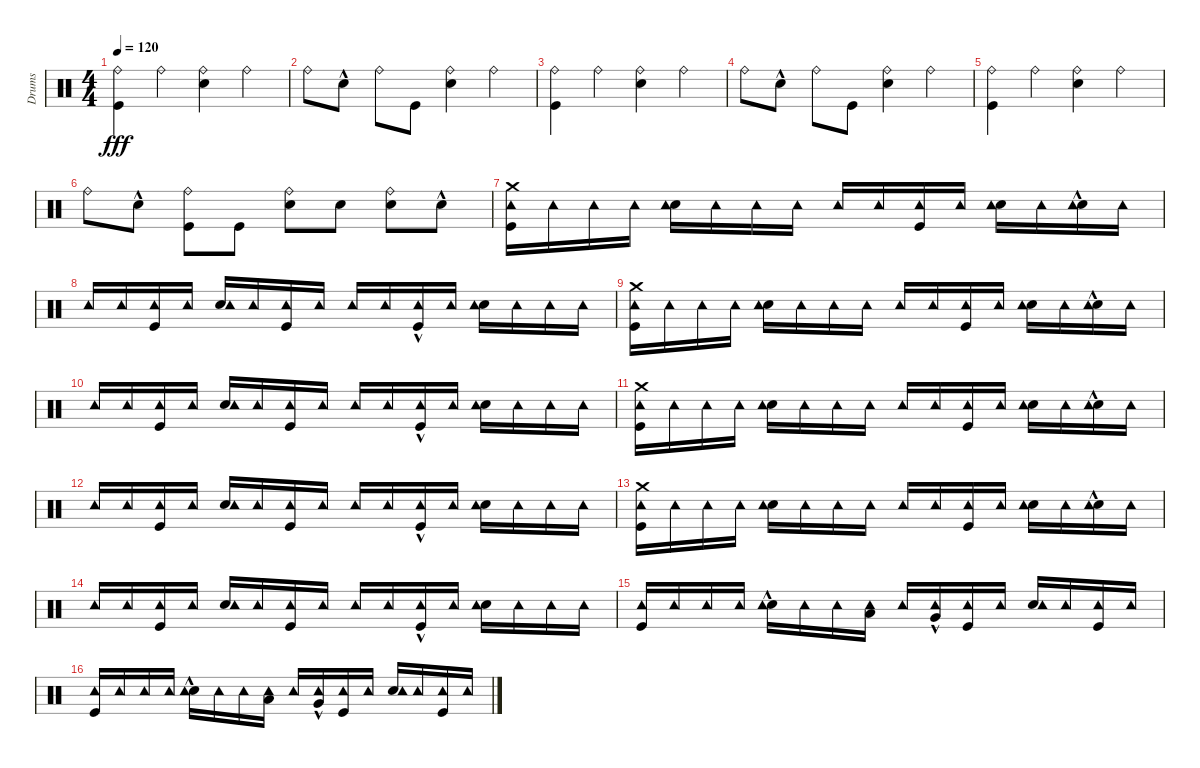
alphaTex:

\track ("Drums" "Drums") {instrument percussion}
\staff {score}
\articulation defaults
\ts (4 4)
\tempo 120
\clef neutral
\ks c
("Kick (hit)" "Ride (bell)").4{dy fff} "Ride (bell)".4 ("Snare (hit) 2" "Ride (bell)").4 "Ride (bell)".4 |
"Ride (bell)".8 "Snare (hit) 2"{hac}.8 "Ride (bell)".8 "Kick (hit)".8 ("Snare (hit) 2" "Ride (bell)").4 "Ride (bell)".4 |
("Kick (hit)" "Ride (bell)").4 "Ride (bell)".4 ("Snare (hit) 2" "Ride (bell)").4 "Ride (bell)".4 |
"Ride (bell)".8 "Snare (hit) 2"{hac}.8 "Ride (bell)".8 "Kick (hit)".8 ("Snare (hit) 2" "Ride (bell)").4 "Ride (bell)".4 |
("Kick (hit)" "Ride (bell)").4 "Ride (bell)".4 ("Snare (hit) 2" "Ride (bell)").4 "Ride (bell)".4 |
"Ride (bell)".8 "Snare (hit) 2"{hac}.8 ("Kick (hit)" "Ride (bell)").8 "Kick (hit)".8 ("Snare (hit) 2" "Ride (bell)").8 "Snare (hit) 2".8 ("Snare (hit) 2" "Ride (bell)").8 "Snare (hit) 2"{hac}.8 |
("Kick (hit)" "Tambourine (hit)" "Crash medium (hit)").16 "Tambourine (hit)".16 "Tambourine (hit)".16 "Tambourine (hit)".16 ("Snare (hit) 2" "Tambourine (hit)").16 "Tambourine (hit)".16 "Tambourine (hit)".16 "Tambourine (hit)".16 "Tambourine (hit)".16 "Tambourine (hit)".16 ("Kick (hit)" "Tambourine (hit)").16 "Tambourine (hit)".16 ("Snare (hit) 2" "Tambourine (hit)").16 "Tambourine (hit)".16 ("Snare (hit) 2"{hac} "Tambourine (hit)").16 "Tambourine (hit)".16 |
"Tambourine (hit)".16 "Tambourine (hit)".16 ("Kick (hit)" "Tambourine (hit)").16 "Tambourine (hit)".16 ("Snare (hit) 2" "Tambourine (hit)").16 "Tambourine (hit)".16 ("Kick (hit)" "Tambourine (hit)").16 "Tambourine (hit)".16 "Tambourine (hit)".16 "Tambourine (hit)".16 ("Kick (hit)"{hac} "Tambourine (hit)").16 "Tambourine (hit)".16 ("Snare (hit) 2" "Tambourine (hit)").16 "Tambourine (hit)".16 "Tambourine (hit)".16 "Tambourine (hit)".16 |
("Kick (hit)" "Tambourine (hit)" "Crash medium (hit)").16 "Tambourine (hit)".16 "Tambourine (hit)".16 "Tambourine (hit)".16 ("Snare (hit) 2" "Tambourine (hit)").16 "Tambourine (hit)".16 "Tambourine (hit)".16 "Tambourine (hit)".16 "Tambourine (hit)".16 "Tambourine (hit)".16 ("Kick (hit)" "Tambourine (hit)").16 "Tambourine (hit)".16 ("Snare (hit) 2" "Tambourine (hit)").16 "Tambourine (hit)".16 ("Snare (hit) 2"{hac} "Tambourine (hit)").16 "Tambourine (hit)".16 |
"Tambourine (hit)".16 "Tambourine (hit)".16 ("Kick (hit)" "Tambourine (hit)").16 "Tambourine (hit)".16 ("Snare (hit) 2" "Tambourine (hit)").16 "Tambourine (hit)".16 ("Kick (hit)" "Tambourine (hit)").16 "Tambourine (hit)".16 "Tambourine (hit)".16 "Tambourine (hit)".16 ("Kick (hit)"{hac} "Tambourine (hit)").16 "Tambourine (hit)".16 ("Snare (hit) 2" "Tambourine (hit)").16 "Tambourine (hit)".16 "Tambourine (hit)".16 "Tambourine (hit)".16 |
("Kick (hit)" "Tambourine (hit)" "Crash medium (hit)").16 "Tambourine (hit)".16 "Tambourine (hit)".16 "Tambourine (hit)".16 ("Snare (hit) 2" "Tambourine (hit)").16 "Tambourine (hit)".16 "Tambourine (hit)".16 "Tambourine (hit)".16 "Tambourine (hit)".16 "Tambourine (hit)".16 ("Kick (hit)" "Tambourine (hit)").16 "Tambourine (hit)".16 ("Snare (hit) 2" "Tambourine (hit)").16 "Tambourine (hit)".16 ("Snare (hit) 2"{hac} "Tambourine (hit)").16 "Tambourine (hit)".16 |
"Tambourine (hit)".16 "Tambourine (hit)".16 ("Kick (hit)" "Tambourine (hit)").16 "Tambourine (hit)".16 ("Snare (hit) 2" "Tambourine (hit)").16 "Tambourine (hit)".16 ("Kick (hit)" "Tambourine (hit)").16 "Tambourine (hit)".16 "Tambourine (hit)".16 "Tambourine (hit)".16 ("Kick (hit)"{hac} "Tambourine (hit)").16 "Tambourine (hit)".16 ("Snare (hit) 2" "Tambourine (hit)").16 "Tambourine (hit)".16 "Tambourine (hit)".16 "Tambourine (hit)".16 |
("Kick (hit)" "Tambourine (hit)" "Crash medium (hit)").16 "Tambourine (hit)".16 "Tambourine (hit)".16 "Tambourine (hit)".16 ("Snare (hit) 2" "Tambourine (hit)").16 "Tambourine (hit)".16 "Tambourine (hit)".16 "Tambourine (hit)".16 "Tambourine (hit)".16 "Tambourine (hit)".16 ("Kick (hit)" "Tambourine (hit)").16 "Tambourine (hit)".16 ("Snare (hit) 2" "Tambourine (hit)").16 "Tambourine (hit)".16 ("Snare (hit) 2"{hac} "Tambourine (hit)").16 "Tambourine (hit)".16 |
"Tambourine (hit)".16 "Tambourine (hit)".16 ("Kick (hit)" "Tambourine (hit)").16 "Tambourine (hit)".16 ("Snare (hit) 2" "Tambourine (hit)").16 "Tambourine (hit)".16 ("Kick (hit)" "Tambourine (hit)").16 "Tambourine (hit)".16 "Tambourine (hit)".16 "Tambourine (hit)".16 ("Kick (hit)"{hac} "Tambourine (hit)").16 "Tambourine (hit)".16 ("Snare (hit) 2" "Tambourine (hit)").16 "Tambourine (hit)".16 "Tambourine (hit)".16 "Tambourine (hit)".16 |
("Kick (hit)" "Tambourine (hit)").16 "Tambourine (hit)".16 "Tambourine (hit)".16 "Tambourine (hit)".16 ("Snare (hit) 2"{hac} "Tambourine (hit)").16 "Tambourine (hit)".16 "Tambourine (hit)".16 ("Low Tom (hit)" "Tambourine (hit)").16 "Tambourine (hit)".16 ("Very Low Tom (hit)"{hac} "Tambourine (hit)").16 ("Kick (hit)" "Tambourine (hit)").16 "Tambourine (hit)".16 ("Snare (hit) 2" "Tambourine (hit)").16 "Tambourine (hit)".16 ("Kick (hit)" "Tambourine (hit)").16 "Tambourine (hit)".16 |
("Kick (hit)" "Tambourine (hit)").16 "Tambourine (hit)".16 "Tambourine (hit)".16 "Tambourine (hit)".16 ("Snare (hit) 2"{hac} "Tambourine (hit)").16 "Tambourine (hit)".16 "Tambourine (hit)".16 ("Low Tom (hit)" "Tambourine (hit)").16 "Tambourine (hit)".16 ("Very Low Tom (hit)"{hac} "Tambourine (hit)").16 ("Kick (hit)" "Tambourine (hit)").16 "Tambourine (hit)".16 ("Snare (hit) 2" "Tambourine (hit)").16 "Tambourine (hit)".16 ("Kick (hit)" "Tambourine (hit)").16 "Tambourine (hit)".16
